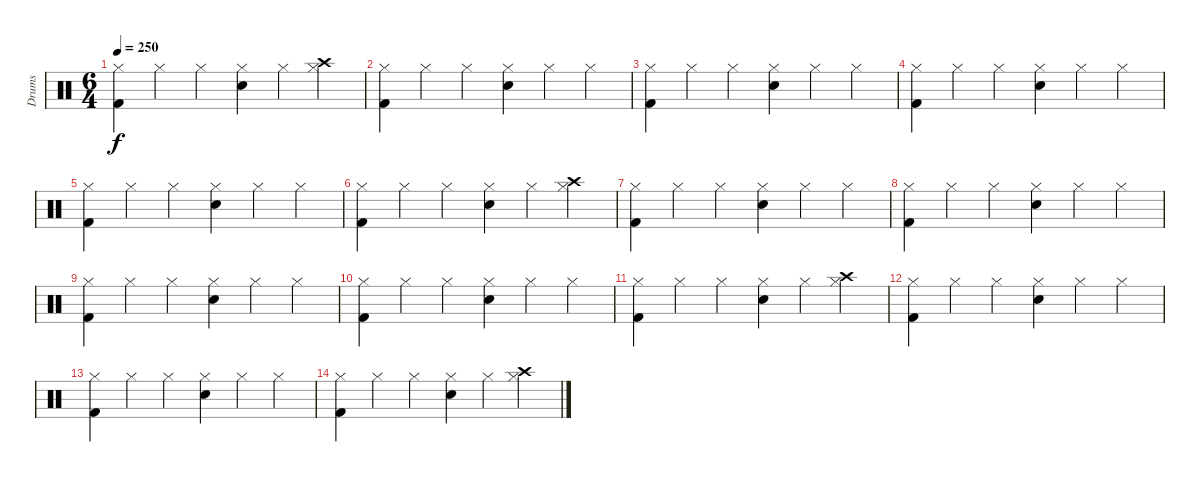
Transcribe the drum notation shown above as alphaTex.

\track ("Drums" "Drums") {instrument percussion}
\staff {score}
\articulation defaults
\ts (6 4)
\tempo 250
\clef neutral
\ks c
("Hi-Hat (closed)" "Kick (hit) 2").4{dy f} "Hi-Hat (closed)".4 "Hi-Hat (closed)".4 ("Hi-Hat (closed)" "Snare (hit) 2").4 "Hi-Hat (closed)".4 ("Hi-Hat (closed)" "Crash high (hit)").4 |
("Hi-Hat (closed)" "Kick (hit) 2").4 "Hi-Hat (closed)".4 "Hi-Hat (closed)".4 ("Hi-Hat (closed)" "Snare (hit) 2").4 "Hi-Hat (closed)".4 "Hi-Hat (closed)".4 |
("Hi-Hat (closed)" "Kick (hit) 2").4 "Hi-Hat (closed)".4 "Hi-Hat (closed)".4 ("Hi-Hat (closed)" "Snare (hit) 2").4 "Hi-Hat (closed)".4 "Hi-Hat (closed)".4 |
("Hi-Hat (closed)" "Kick (hit) 2").4 "Hi-Hat (closed)".4 "Hi-Hat (closed)".4 ("Hi-Hat (closed)" "Snare (hit) 2").4 "Hi-Hat (closed)".4 "Hi-Hat (closed)".4 |
("Hi-Hat (closed)" "Kick (hit) 2").4 "Hi-Hat (closed)".4 "Hi-Hat (closed)".4 ("Hi-Hat (closed)" "Snare (hit) 2").4 "Hi-Hat (closed)".4 "Hi-Hat (closed)".4 |
("Hi-Hat (closed)" "Kick (hit) 2").4 "Hi-Hat (closed)".4 "Hi-Hat (closed)".4 ("Hi-Hat (closed)" "Snare (hit) 2").4 "Hi-Hat (closed)".4 ("Hi-Hat (closed)" "Crash high (hit)").4 |
("Hi-Hat (closed)" "Kick (hit) 2").4 "Hi-Hat (closed)".4 "Hi-Hat (closed)".4 ("Hi-Hat (closed)" "Snare (hit) 2").4 "Hi-Hat (closed)".4 "Hi-Hat (closed)".4 |
("Hi-Hat (closed)" "Kick (hit) 2").4 "Hi-Hat (closed)".4 "Hi-Hat (closed)".4 ("Hi-Hat (closed)" "Snare (hit) 2").4 "Hi-Hat (closed)".4 "Hi-Hat (closed)".4 |
("Hi-Hat (closed)" "Kick (hit) 2").4 "Hi-Hat (closed)".4 "Hi-Hat (closed)".4 ("Hi-Hat (closed)" "Snare (hit) 2").4 "Hi-Hat (closed)".4 "Hi-Hat (closed)".4 |
("Hi-Hat (closed)" "Kick (hit) 2").4 "Hi-Hat (closed)".4 "Hi-Hat (closed)".4 ("Hi-Hat (closed)" "Snare (hit) 2").4 "Hi-Hat (closed)".4 "Hi-Hat (closed)".4 |
("Hi-Hat (closed)" "Kick (hit) 2").4 "Hi-Hat (closed)".4 "Hi-Hat (closed)".4 ("Hi-Hat (closed)" "Snare (hit) 2").4 "Hi-Hat (closed)".4 ("Hi-Hat (closed)" "Crash high (hit)").4 |
("Hi-Hat (closed)" "Kick (hit) 2").4 "Hi-Hat (closed)".4 "Hi-Hat (closed)".4 ("Hi-Hat (closed)" "Snare (hit) 2").4 "Hi-Hat (closed)".4 "Hi-Hat (closed)".4 |
("Hi-Hat (closed)" "Kick (hit) 2").4 "Hi-Hat (closed)".4 "Hi-Hat (closed)".4 ("Hi-Hat (closed)" "Snare (hit) 2").4 "Hi-Hat (closed)".4 "Hi-Hat (closed)".4 |
("Hi-Hat (closed)" "Kick (hit) 2").4 "Hi-Hat (closed)".4 "Hi-Hat (closed)".4 ("Hi-Hat (closed)" "Snare (hit) 2").4 "Hi-Hat (closed)".4 ("Hi-Hat (closed)" "Crash high (hit)").4
